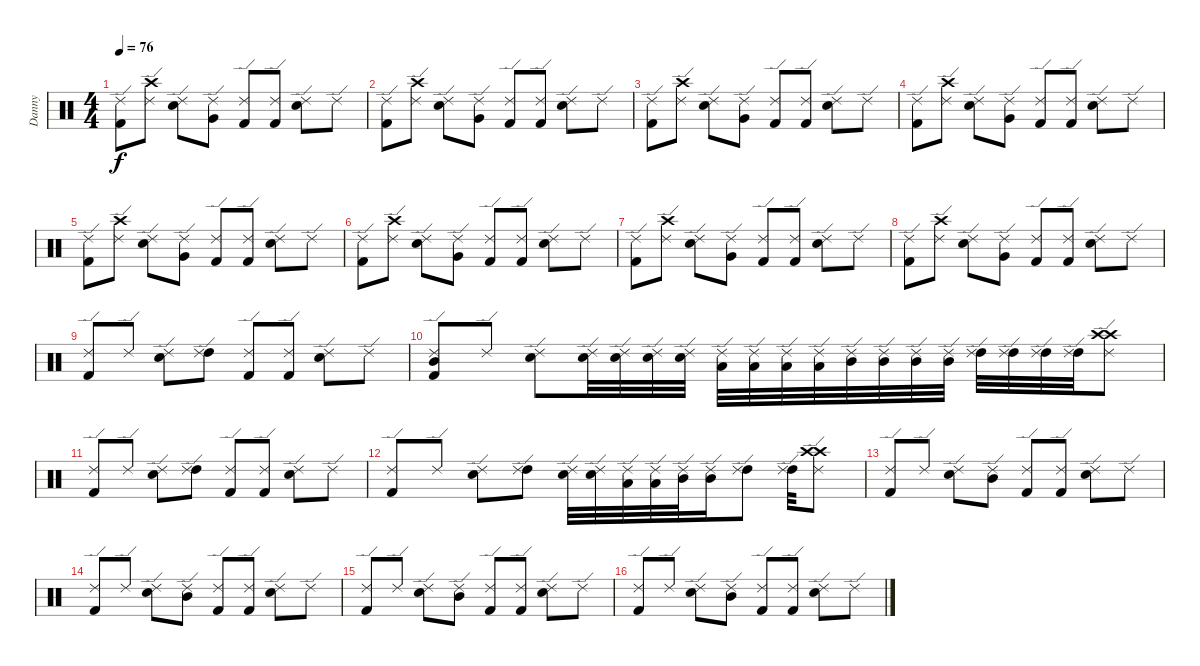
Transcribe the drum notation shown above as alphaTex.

\track ("Danny" "Danny") {instrument percussion}
\staff {score}
\articulation defaults
\ts (4 4)
\tempo 76
\clef neutral
\ks c
("Kick (hit) 2" "Ride (edge) 2").8{dy f} ("Ride (edge) 2" "Crash high (hit)").8 ("Electric Snare (hit)" "Ride (edge) 2").8 ("Very Low Tom (hit)" "Ride (edge) 2").8 ("Kick (hit) 2" "Ride (edge) 2").8 ("Kick (hit) 2" "Ride (edge) 2").8 ("Electric Snare (hit)" "Ride (edge) 2").8 "Ride (edge) 2".8 |
("Kick (hit) 2" "Ride (edge) 2").8 ("Ride (edge) 2" "Crash high (hit)").8 ("Electric Snare (hit)" "Ride (edge) 2").8 ("Very Low Tom (hit)" "Ride (edge) 2").8 ("Kick (hit) 2" "Ride (edge) 2").8 ("Kick (hit) 2" "Ride (edge) 2").8 ("Electric Snare (hit)" "Ride (edge) 2").8 "Ride (edge) 2".8 |
("Kick (hit) 2" "Ride (edge) 2").8 ("Ride (edge) 2" "Crash high (hit)").8 ("Electric Snare (hit)" "Ride (edge) 2").8 ("Very Low Tom (hit)" "Ride (edge) 2").8 ("Kick (hit) 2" "Ride (edge) 2").8 ("Kick (hit) 2" "Ride (edge) 2").8 ("Electric Snare (hit)" "Ride (edge) 2").8 "Ride (edge) 2".8 |
("Kick (hit) 2" "Ride (edge) 2").8 ("Ride (edge) 2" "Crash high (hit)").8 ("Electric Snare (hit)" "Ride (edge) 2").8 ("Very Low Tom (hit)" "Ride (edge) 2").8 ("Kick (hit) 2" "Ride (edge) 2").8 ("Kick (hit) 2" "Ride (edge) 2").8 ("Electric Snare (hit)" "Ride (edge) 2").8 "Ride (edge) 2".8 |
("Kick (hit) 2" "Ride (edge) 2").8 ("Ride (edge) 2" "Crash high (hit)").8 ("Electric Snare (hit)" "Ride (edge) 2").8 ("Very Low Tom (hit)" "Ride (edge) 2").8 ("Kick (hit) 2" "Ride (edge) 2").8 ("Kick (hit) 2" "Ride (edge) 2").8 ("Electric Snare (hit)" "Ride (edge) 2").8 "Ride (edge) 2".8 |
("Kick (hit) 2" "Ride (edge) 2").8 ("Ride (edge) 2" "Crash high (hit)").8 ("Electric Snare (hit)" "Ride (edge) 2").8 ("Very Low Tom (hit)" "Ride (edge) 2").8 ("Kick (hit) 2" "Ride (edge) 2").8 ("Kick (hit) 2" "Ride (edge) 2").8 ("Electric Snare (hit)" "Ride (edge) 2").8 "Ride (edge) 2".8 |
("Kick (hit) 2" "Ride (edge) 2").8 ("Ride (edge) 2" "Crash high (hit)").8 ("Electric Snare (hit)" "Ride (edge) 2").8 ("Very Low Tom (hit)" "Ride (edge) 2").8 ("Kick (hit) 2" "Ride (edge) 2").8 ("Kick (hit) 2" "Ride (edge) 2").8 ("Electric Snare (hit)" "Ride (edge) 2").8 "Ride (edge) 2".8 |
("Kick (hit) 2" "Ride (edge) 2").8 ("Ride (edge) 2" "Crash high (hit)").8 ("Electric Snare (hit)" "Ride (edge) 2").8 ("Very Low Tom (hit)" "Ride (edge) 2").8 ("Kick (hit) 2" "Ride (edge) 2").8 ("Kick (hit) 2" "Ride (edge) 2").8 ("Electric Snare (hit)" "Ride (edge) 2").8 "Ride (edge) 2".8 |
("Kick (hit) 2" "Ride (edge) 2").8 "Ride (edge) 2".8 ("Electric Snare (hit)" "Ride (edge) 2").8 ("High Tom (hit)" "Ride (edge) 2").8 ("Kick (hit) 2" "Ride (edge) 2").8 ("Kick (hit) 2" "Ride (edge) 2").8 ("Electric Snare (hit)" "Ride (edge) 2").8 "Ride (edge) 2".8 |
("Kick (hit) 2" "Ride (edge) 2" "Mid Tom (hit)").8 "Ride (edge) 2".8 ("Electric Snare (hit)" "Ride (edge) 2").8 ("Electric Snare (hit)" "Ride (edge) 2").32 ("Electric Snare (hit)" "Ride (edge) 2").32 ("Electric Snare (hit)" "Ride (edge) 2").32 ("Electric Snare (hit)" "Ride (edge) 2").32 ("Low Tom (hit)" "Ride (edge) 2").32 ("Low Tom (hit)" "Ride (edge) 2").32 ("Low Tom (hit)" "Ride (edge) 2").32 ("Low Tom (hit)" "Ride (edge) 2").32 ("Mid Tom (hit)" "Ride (edge) 2").32 ("Mid Tom (hit)" "Ride (edge) 2").32 ("Mid Tom (hit)" "Ride (edge) 2").32 ("Mid Tom (hit)" "Ride (edge) 2").32 ("High Tom (hit)" "Ride (edge) 2").32 ("High Tom (hit)" "Ride (edge) 2").32 ("High Tom (hit)" "Ride (edge) 2").32 ("High Tom (hit)" "Ride (edge) 2").32 ("Crash high (hit)" "Ride (edge) 2" "Crash high (hit)").8 |
("Kick (hit) 2" "Ride (edge) 2").8 "Ride (edge) 2".8 ("Electric Snare (hit)" "Ride (edge) 2").8 ("High Tom (hit)" "Ride (edge) 2").8 ("Kick (hit) 2" "Ride (edge) 2").8 ("Kick (hit) 2" "Ride (edge) 2").8 ("Electric Snare (hit)" "Ride (edge) 2").8 "Ride (edge) 2".8 |
("Kick (hit) 2" "Ride (edge) 2").8 "Ride (edge) 2".8 ("Electric Snare (hit)" "Ride (edge) 2").8 ("High Tom (hit)" "Ride (edge) 2").8 ("Electric Snare (hit)" "Ride (edge) 2").32 ("Electric Snare (hit)" "Ride (edge) 2").32 ("Low Tom (hit)" "Ride (edge) 2").32 ("Low Tom (hit)" "Ride (edge) 2").32 ("Mid Tom (hit)" "Ride (edge) 2").32 ("Mid Tom (hit)" "Ride (edge) 2").16 ("High Tom (hit)" "Ride (edge) 2").8 ("High Tom (hit)" "Ride (edge) 2").32 ("Crash high (hit)" "Ride (edge) 2" "Crash high (hit)").8 |
("Kick (hit) 2" "Ride (edge) 2").8 "Ride (edge) 2".8 ("Electric Snare (hit)" "Ride (edge) 2").8 ("Mid Tom (hit)" "Ride (edge) 2").8 ("Kick (hit) 2" "Ride (edge) 2").8 ("Kick (hit) 2" "Ride (edge) 2").8 ("Electric Snare (hit)" "Ride (edge) 2").8 "Ride (edge) 2".8 |
("Kick (hit) 2" "Ride (edge) 2").8 "Ride (edge) 2".8 ("Electric Snare (hit)" "Ride (edge) 2").8 ("Mid Tom (hit)" "Ride (edge) 2").8 ("Kick (hit) 2" "Ride (edge) 2").8 ("Kick (hit) 2" "Ride (edge) 2").8 ("Electric Snare (hit)" "Ride (edge) 2").8 "Ride (edge) 2".8 |
("Kick (hit) 2" "Ride (edge) 2").8 "Ride (edge) 2".8 ("Electric Snare (hit)" "Ride (edge) 2").8 ("Mid Tom (hit)" "Ride (edge) 2").8 ("Kick (hit) 2" "Ride (edge) 2").8 ("Kick (hit) 2" "Ride (edge) 2").8 ("Electric Snare (hit)" "Ride (edge) 2").8 "Ride (edge) 2".8 |
("Kick (hit) 2" "Ride (edge) 2").8 "Ride (edge) 2".8 ("Electric Snare (hit)" "Ride (edge) 2").8 ("Mid Tom (hit)" "Ride (edge) 2").8 ("Kick (hit) 2" "Ride (edge) 2").8 ("Kick (hit) 2" "Ride (edge) 2").8 ("Electric Snare (hit)" "Ride (edge) 2").8 "Ride (edge) 2".8
